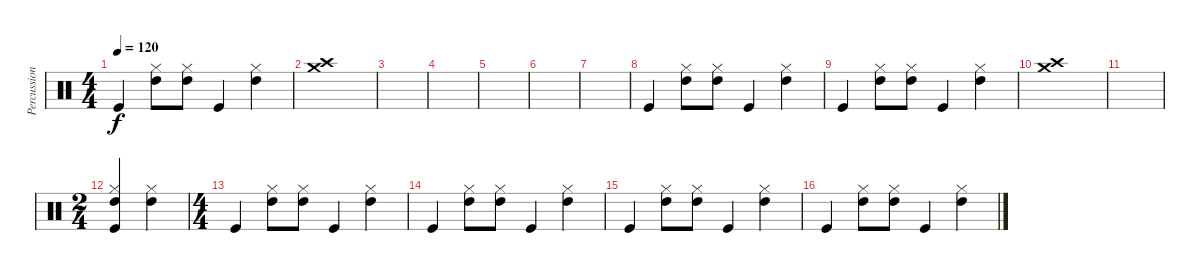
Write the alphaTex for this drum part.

\track ("Percussion" "Percussion") {instrument percussion}
\staff {score}
\articulation defaults
\ts (4 4)
\tempo 120
\clef neutral
\ks c "Kick (hit)".4{dy f}
("Hi-Hat (closed)" "High Tom (hit)").8 ("Hi-Hat (closed)" "High Tom (hit)").8 "Kick (hit)".4 ("Hi-Hat (closed)" "High Tom (hit)").4 |
("Crash high (hit)" "Crash medium (hit)").1 |
|
|
|
|
|
"Kick (hit)".4 ("Hi-Hat (closed)" "High Tom (hit)").8 ("Hi-Hat (closed)" "High Tom (hit)").8 "Kick (hit)".4 ("Hi-Hat (closed)" "High Tom (hit)").4 |
"Kick (hit)".4 ("Hi-Hat (closed)" "High Tom (hit)").8 ("Hi-Hat (closed)" "High Tom (hit)").8 "Kick (hit)".4 ("Hi-Hat (closed)" "High Tom (hit)").4 |
("Crash high (hit)" "Crash medium (hit)").1 |
|
\ts (2 4)
("Hi-Hat (closed)" "High Tom (hit)" "Kick (hit)").4 ("Hi-Hat (closed)" "High Tom (hit)").4 |
\ts (4 4)
"Kick (hit)".4 ("Hi-Hat (closed)" "High Tom (hit)").8 ("Hi-Hat (closed)" "High Tom (hit)").8 "Kick (hit)".4 ("Hi-Hat (closed)" "High Tom (hit)").4 |
"Kick (hit)".4 ("Hi-Hat (closed)" "High Tom (hit)").8 ("Hi-Hat (closed)" "High Tom (hit)").8 "Kick (hit)".4 ("Hi-Hat (closed)" "High Tom (hit)").4 |
"Kick (hit)".4 ("Hi-Hat (closed)" "High Tom (hit)").8 ("Hi-Hat (closed)" "High Tom (hit)").8 "Kick (hit)".4 ("Hi-Hat (closed)" "High Tom (hit)").4 |
"Kick (hit)".4 ("Hi-Hat (closed)" "High Tom (hit)").8 ("Hi-Hat (closed)" "High Tom (hit)").8 "Kick (hit)".4 ("Hi-Hat (closed)" "High Tom (hit)").4
